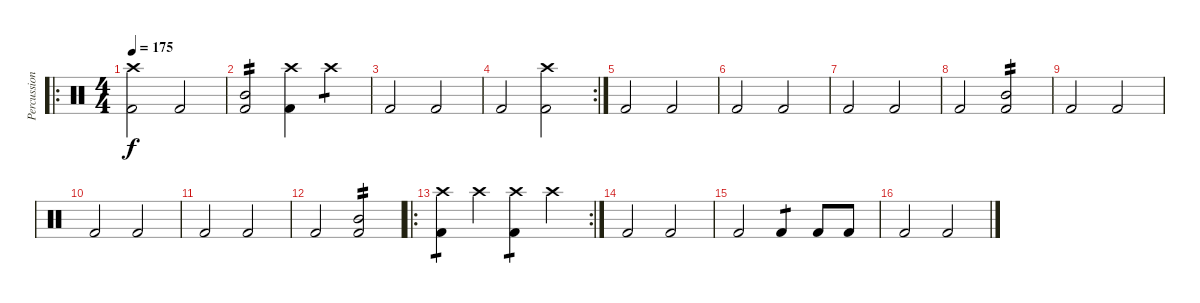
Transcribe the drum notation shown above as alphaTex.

\track ("Percussion" "Percussion") {instrument percussion}
\staff {score}
\articulation defaults
\ro
\ts (4 4)
\tempo 175
\clef neutral
\ks c
("Crash high (hit)" "Kick (hit) 2").2{dy f} "Kick (hit) 2".2 |
("Mid Tom (hit)" "Kick (hit) 2").2{tp 2} ("Crash high (hit)" "Kick (hit) 2").4 "Crash high (hit)".4{tp 1} |
"Kick (hit) 2".2 "Kick (hit) 2".2 |
\rc 2 "Kick (hit) 2".2
("Crash high (hit)" "Kick (hit) 2").2 |
"Kick (hit) 2".2 "Kick (hit) 2".2 |
"Kick (hit) 2".2 "Kick (hit) 2".2 |
"Kick (hit) 2".2 "Kick (hit) 2".2 |
"Kick (hit) 2".2 ("Mid Tom (hit)" "Kick (hit) 2").2{tp 2} |
"Kick (hit) 2".2 "Kick (hit) 2".2 |
"Kick (hit) 2".2 "Kick (hit) 2".2 |
"Kick (hit) 2".2 "Kick (hit) 2".2 |
"Kick (hit) 2".2 ("Mid Tom (hit)" "Kick (hit) 2").2{tp 2} |
\ro
\rc 2
("Crash high (hit)" "Kick (hit) 2").4{tp 1} "Crash high (hit)".4 ("Crash high (hit)" "Kick (hit) 2").4{tp 1} "Crash high (hit)".4 |
"Kick (hit) 2".2 "Kick (hit) 2".2 |
"Kick (hit) 2".2 "Kick (hit) 2".4{tp 1} "Kick (hit) 2".8 "Kick (hit) 2".8 |
"Kick (hit) 2".2 "Kick (hit) 2".2
